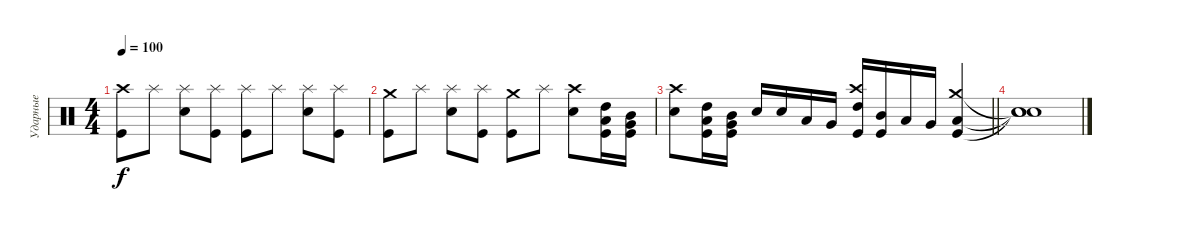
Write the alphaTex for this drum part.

\track ("Ударные" "Ударные") {instrument percussion}
\staff {score}
\articulation defaults
\ts (4 4)
\tempo 100
\clef neutral
\ks c
("Kick (hit)" "Crash high (hit)").8{dy f} "Splash (hit)".8 ("Electric Snare (hit)" "Splash (hit)").8 ("Kick (hit)" "Splash (hit)").8 ("Kick (hit)" "Splash (hit)").8 "Splash (hit)".8 ("Electric Snare (hit)" "Splash (hit)").8 ("Kick (hit)" "Splash (hit)").8 |
("Kick (hit)" "Crash medium (hit)").8 "Splash (hit)".8 ("Electric Snare (hit)" "Splash (hit)").8 ("Kick (hit)" "Splash (hit)").8 ("Kick (hit)" "Crash medium (hit)").8 "Splash (hit)".8 ("Electric Snare (hit)" "Crash high (hit)").8 ("Kick (hit)" "High Tom (hit)" "Low Tom (hit)").16 ("Kick (hit)" "Mid Tom (hit)" "Very Low Tom (hit)").16 |
\barLineRight lightlight
("Electric Snare (hit)" "Crash high (hit)").8 ("Kick (hit)" "High Tom (hit)" "Low Tom (hit)").16 ("Kick (hit)" "Mid Tom (hit)" "Very Low Tom (hit)").16 "Electric Snare (hit)".16 "Electric Snare (hit)".16 "Low Tom (hit)".16 "Very Low Tom (hit)".16 ("Kick (hit)" "Crash high (hit)" "High Tom (hit)").16 ("Kick (hit)" "Mid Tom (hit)").16 "Low Tom (hit)".16 "Very Low Tom (hit)".16 ("Crash medium (hit)" "Kick (hit)" "Low Floor Tom (hit)").4 |
("Snare (hit)"{t} "Snare (hit)"{t} "Snare (hit)"{t}).1
